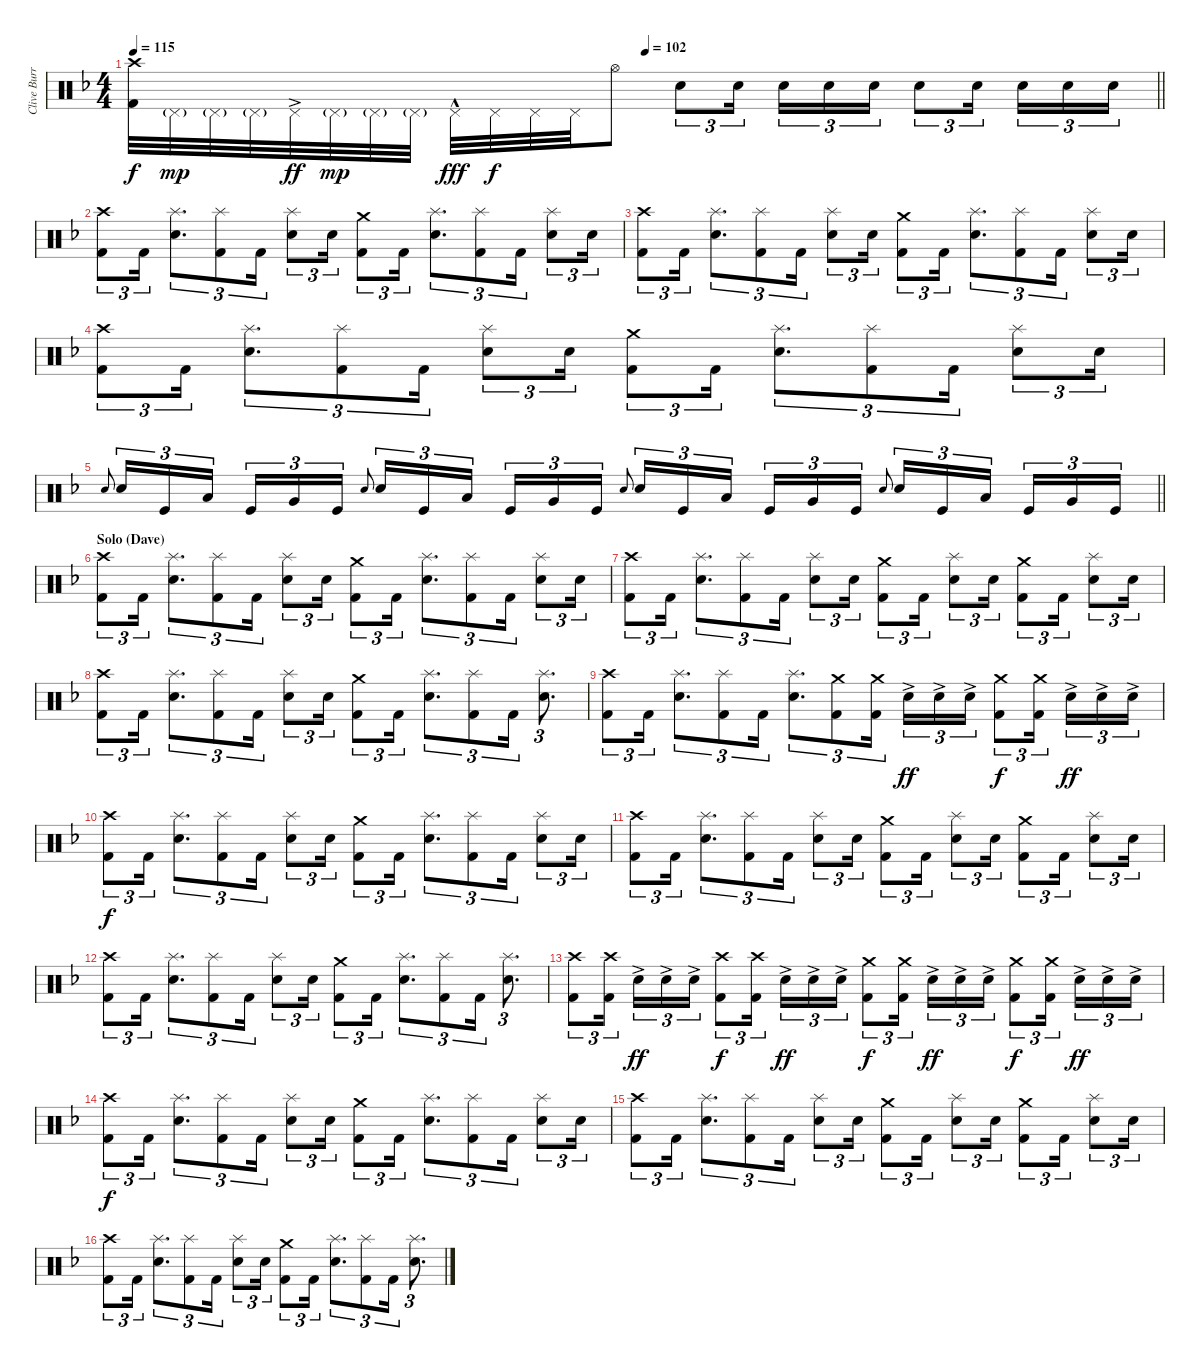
\track ("Clive Burr" "Clive Burr") {instrument percussion}
\staff {score}
\articulation defaults
\ts (4 4)
\tempo 115
\tempo (102 0.5)
\clef neutral
\barLineRight lightlight
\ks dminor
("Crash high (hit)" "Kick (hit) 2").32{dy f} "Pedal Hi-Hat (hit)"{g}.32{dy mp} "Pedal Hi-Hat (hit)"{g}.32 "Pedal Hi-Hat (hit)"{g}.32 "Pedal Hi-Hat (hit)"{ac}.32{dy ff} "Pedal Hi-Hat (hit)"{g}.32{dy mp} "Pedal Hi-Hat (hit)"{g}.32 "Pedal Hi-Hat (hit)"{g}.32 "Pedal Hi-Hat (hit)"{hac}.32{dy fff} "Pedal Hi-Hat (hit)".32{dy f} "Pedal Hi-Hat (hit)".32 "Pedal Hi-Hat (hit)".32 "Hi-Hat (open)".8 "Electric Snare (hit)".8{tu (3 2)} "Electric Snare (hit)".16{tu (3 2) beam splitsecondary} "Electric Snare (hit)".16{tu (3 2)} "Electric Snare (hit)".16{tu (3 2)} "Electric Snare (hit)".16{tu (3 2)} "Electric Snare (hit)".8{tu (3 2)} "Electric Snare (hit)".16{tu (3 2) beam splitsecondary} "Electric Snare (hit)".16{tu (3 2)} "Electric Snare (hit)".16{tu (3 2)} "Electric Snare (hit)".16{tu (3 2)} |
("Crash high (hit)" "Kick (hit) 2").8{tu (3 2)} "Kick (hit) 2".16{tu (3 2)} ("Splash (hit)" "Snare (hit) 2").8{d tu (3 2)} ("Splash (hit)" "Kick (hit) 2").8{tu (3 2)} "Kick (hit) 2".16{tu (3 2)} ("Splash (hit)" "Snare (hit) 2").8{tu (3 2)} "Snare (hit) 2".16{tu (3 2)} ("Crash medium (hit)" "Kick (hit) 2").8{tu (3 2)} "Kick (hit) 2".16{tu (3 2)} ("Splash (hit)" "Snare (hit) 2").8{d tu (3 2)} ("Splash (hit)" "Kick (hit) 2").8{tu (3 2)} "Kick (hit) 2".16{tu (3 2)} ("Splash (hit)" "Snare (hit) 2").8{tu (3 2)} "Snare (hit) 2".16{tu (3 2)} |
("Crash high (hit)" "Kick (hit) 2").8{tu (3 2)} "Kick (hit) 2".16{tu (3 2)} ("Splash (hit)" "Snare (hit) 2").8{d tu (3 2)} ("Splash (hit)" "Kick (hit) 2").8{tu (3 2)} "Kick (hit) 2".16{tu (3 2)} ("Splash (hit)" "Snare (hit) 2").8{tu (3 2)} "Snare (hit) 2".16{tu (3 2)} ("Crash medium (hit)" "Kick (hit) 2").8{tu (3 2)} "Kick (hit) 2".16{tu (3 2)} ("Splash (hit)" "Snare (hit) 2").8{d tu (3 2)} ("Splash (hit)" "Kick (hit) 2").8{tu (3 2)} "Kick (hit) 2".16{tu (3 2)} ("Splash (hit)" "Snare (hit) 2").8{tu (3 2)} "Snare (hit) 2".16{tu (3 2)} |
("Crash high (hit)" "Kick (hit) 2").8{tu (3 2)} "Kick (hit) 2".16{tu (3 2)} ("Splash (hit)" "Snare (hit) 2").8{d tu (3 2)} ("Splash (hit)" "Kick (hit) 2").8{tu (3 2)} "Kick (hit) 2".16{tu (3 2)} ("Splash (hit)" "Snare (hit) 2").8{tu (3 2)} "Snare (hit) 2".16{tu (3 2)} ("Crash medium (hit)" "Kick (hit) 2").8{tu (3 2)} "Kick (hit) 2".16{tu (3 2)} ("Splash (hit)" "Snare (hit) 2").8{d tu (3 2)} ("Splash (hit)" "Kick (hit) 2").8{tu (3 2)} "Kick (hit) 2".16{tu (3 2)} ("Splash (hit)" "Snare (hit) 2").8{tu (3 2)} "Snare (hit) 2".16{tu (3 2)} |
\barLineRight lightlight "Electric Snare (hit)".8{gr onbeat} "Electric Snare (hit)".16{tu (3 2)} "Kick (hit)".16{tu (3 2)} "Low Tom (hit)".16{tu (3 2) beam splitsecondary} "Kick (hit)".16{tu (3 2)} "Very Low Tom (hit)".16{tu (3 2)} "Kick (hit)".16{tu (3 2)} "Electric Snare (hit)".8{gr onbeat} "Electric Snare (hit)".16{tu (3 2)} "Kick (hit)".16{tu (3 2)} "Low Tom (hit)".16{tu (3 2) beam splitsecondary} "Kick (hit)".16{tu (3 2)} "Very Low Tom (hit)".16{tu (3 2)} "Kick (hit)".16{tu (3 2)} "Electric Snare (hit)".8{gr onbeat} "Electric Snare (hit)".16{tu (3 2)} "Kick (hit)".16{tu (3 2)} "Low Tom (hit)".16{tu (3 2) beam splitsecondary} "Kick (hit)".16{tu (3 2)} "Very Low Tom (hit)".16{tu (3 2)} "Kick (hit)".16{tu (3 2)} "Electric Snare (hit)".8{gr onbeat} "Electric Snare (hit)".16{tu (3 2)} "Kick (hit)".16{tu (3 2)} "Low Tom (hit)".16{tu (3 2) beam splitsecondary} "Kick (hit)".16{tu (3 2)} "Very Low Tom (hit)".16{tu (3 2)} "Kick (hit)".16{tu (3 2)}
|
\section ("" "Solo (Dave)")
("Crash high (hit)" "Kick (hit) 2").8{tu (3 2)} "Kick (hit) 2".16{tu (3 2)} ("Splash (hit)" "Snare (hit) 2").8{d tu (3 2)} ("Splash (hit)" "Kick (hit) 2").8{tu (3 2)} "Kick (hit) 2".16{tu (3 2)} ("Splash (hit)" "Snare (hit) 2").8{tu (3 2)} "Snare (hit) 2".16{tu (3 2)} ("Crash medium (hit)" "Kick (hit) 2").8{tu (3 2)} "Kick (hit) 2".16{tu (3 2)} ("Splash (hit)" "Snare (hit) 2").8{d tu (3 2)} ("Splash (hit)" "Kick (hit) 2").8{tu (3 2)} "Kick (hit) 2".16{tu (3 2)} ("Splash (hit)" "Snare (hit) 2").8{tu (3 2)} "Snare (hit) 2".16{tu (3 2)} |
("Crash high (hit)" "Kick (hit) 2").8{tu (3 2)} "Kick (hit) 2".16{tu (3 2)} ("Splash (hit)" "Snare (hit) 2").8{d tu (3 2)} ("Splash (hit)" "Kick (hit) 2").8{tu (3 2)} "Kick (hit) 2".16{tu (3 2)} ("Splash (hit)" "Snare (hit) 2").8{tu (3 2)} "Snare (hit) 2".16{tu (3 2)} ("Crash medium (hit)" "Kick (hit) 2").8{tu (3 2)} "Kick (hit) 2".16{tu (3 2)} ("Splash (hit)" "Snare (hit) 2").8{tu (3 2)} "Snare (hit) 2".16{tu (3 2)} ("Crash medium (hit)" "Kick (hit) 2").8{tu (3 2)} "Kick (hit) 2".16{tu (3 2)} ("Splash (hit)" "Snare (hit) 2").8{tu (3 2)} "Snare (hit) 2".16{tu (3 2)} |
("Crash high (hit)" "Kick (hit) 2").8{tu (3 2)} "Kick (hit) 2".16{tu (3 2)} ("Splash (hit)" "Snare (hit) 2").8{d tu (3 2)} ("Splash (hit)" "Kick (hit) 2").8{tu (3 2)} "Kick (hit) 2".16{tu (3 2)} ("Splash (hit)" "Snare (hit) 2").8{tu (3 2)} "Snare (hit) 2".16{tu (3 2)} ("Crash medium (hit)" "Kick (hit) 2").8{tu (3 2)} "Kick (hit) 2".16{tu (3 2)} ("Splash (hit)" "Snare (hit) 2").8{d tu (3 2)} ("Splash (hit)" "Kick (hit) 2").8{tu (3 2)} "Kick (hit) 2".16{tu (3 2)} ("Splash (hit)" "Snare (hit) 2").8{d tu (3 2)} |
("Crash high (hit)" "Kick (hit) 2").8{tu (3 2)} "Kick (hit) 2".16{tu (3 2)} ("Splash (hit)" "Snare (hit) 2").8{d tu (3 2)} ("Splash (hit)" "Kick (hit) 2").8{tu (3 2)} "Kick (hit) 2".16{tu (3 2)} ("Splash (hit)" "Snare (hit) 2").8{d tu (3 2)} ("Crash medium (hit)" "Kick (hit) 2").8{tu (3 2)} ("Crash medium (hit)" "Kick (hit) 2").16{tu (3 2) beam splitsecondary} "Electric Snare (hit)"{ac}.16{tu (3 2) dy ff} "Electric Snare (hit)"{ac}.16{tu (3 2)} "Electric Snare (hit)"{ac}.16{tu (3 2)} ("Crash medium (hit)" "Kick (hit) 2").8{tu (3 2) dy f} ("Crash medium (hit)" "Kick (hit) 2").16{tu (3 2) beam splitsecondary} "Electric Snare (hit)"{ac}.16{tu (3 2) dy ff} "Electric Snare (hit)"{ac}.16{tu (3 2)} "Electric Snare (hit)"{ac}.16{tu (3 2)} |
("Crash high (hit)" "Kick (hit) 2").8{tu (3 2) dy f} "Kick (hit) 2".16{tu (3 2)} ("Splash (hit)" "Snare (hit) 2").8{d tu (3 2)} ("Splash (hit)" "Kick (hit) 2").8{tu (3 2)} "Kick (hit) 2".16{tu (3 2)} ("Splash (hit)" "Snare (hit) 2").8{tu (3 2)} "Snare (hit) 2".16{tu (3 2)} ("Crash medium (hit)" "Kick (hit) 2").8{tu (3 2)} "Kick (hit) 2".16{tu (3 2)} ("Splash (hit)" "Snare (hit) 2").8{d tu (3 2)} ("Splash (hit)" "Kick (hit) 2").8{tu (3 2)} "Kick (hit) 2".16{tu (3 2)} ("Splash (hit)" "Snare (hit) 2").8{tu (3 2)} "Snare (hit) 2".16{tu (3 2)} |
("Crash high (hit)" "Kick (hit) 2").8{tu (3 2)} "Kick (hit) 2".16{tu (3 2)} ("Splash (hit)" "Snare (hit) 2").8{d tu (3 2)} ("Splash (hit)" "Kick (hit) 2").8{tu (3 2)} "Kick (hit) 2".16{tu (3 2)} ("Splash (hit)" "Snare (hit) 2").8{tu (3 2)} "Snare (hit) 2".16{tu (3 2)} ("Crash medium (hit)" "Kick (hit) 2").8{tu (3 2)} "Kick (hit) 2".16{tu (3 2)} ("Splash (hit)" "Snare (hit) 2").8{tu (3 2)} "Snare (hit) 2".16{tu (3 2)} ("Crash medium (hit)" "Kick (hit) 2").8{tu (3 2)} "Kick (hit) 2".16{tu (3 2)} ("Splash (hit)" "Snare (hit) 2").8{tu (3 2)} "Snare (hit) 2".16{tu (3 2)} |
("Crash high (hit)" "Kick (hit) 2").8{tu (3 2)} "Kick (hit) 2".16{tu (3 2)} ("Splash (hit)" "Snare (hit) 2").8{d tu (3 2)} ("Splash (hit)" "Kick (hit) 2").8{tu (3 2)} "Kick (hit) 2".16{tu (3 2)} ("Splash (hit)" "Snare (hit) 2").8{tu (3 2)} "Snare (hit) 2".16{tu (3 2)} ("Crash medium (hit)" "Kick (hit) 2").8{tu (3 2)} "Kick (hit) 2".16{tu (3 2)} ("Splash (hit)" "Snare (hit) 2").8{d tu (3 2)} ("Splash (hit)" "Kick (hit) 2").8{tu (3 2)} "Kick (hit) 2".16{tu (3 2)} ("Splash (hit)" "Snare (hit) 2").8{d tu (3 2)} |
("Crash high (hit)" "Kick (hit) 2").8{tu (3 2)} ("Crash high (hit)" "Kick (hit) 2").16{tu (3 2) beam splitsecondary} "Electric Snare (hit)"{ac}.16{tu (3 2) dy ff} "Electric Snare (hit)"{ac}.16{tu (3 2)} "Electric Snare (hit)"{ac}.16{tu (3 2)} ("Crash high (hit)" "Kick (hit) 2").8{tu (3 2) dy f} ("Crash high (hit)" "Kick (hit) 2").16{tu (3 2) beam splitsecondary} "Electric Snare (hit)"{ac}.16{tu (3 2) dy ff} "Electric Snare (hit)"{ac}.16{tu (3 2)} "Electric Snare (hit)"{ac}.16{tu (3 2)} ("Crash medium (hit)" "Kick (hit) 2").8{tu (3 2) dy f} ("Crash medium (hit)" "Kick (hit) 2").16{tu (3 2) beam splitsecondary} "Electric Snare (hit)"{ac}.16{tu (3 2) dy ff} "Electric Snare (hit)"{ac}.16{tu (3 2)} "Electric Snare (hit)"{ac}.16{tu (3 2)} ("Crash medium (hit)" "Kick (hit) 2").8{tu (3 2) dy f} ("Crash medium (hit)" "Kick (hit) 2").16{tu (3 2) beam splitsecondary} "Electric Snare (hit)"{ac}.16{tu (3 2) dy ff} "Electric Snare (hit)"{ac}.16{tu (3 2)} "Electric Snare (hit)"{ac}.16{tu (3 2)} |
("Crash high (hit)" "Kick (hit) 2").8{tu (3 2) dy f} "Kick (hit) 2".16{tu (3 2)} ("Splash (hit)" "Snare (hit) 2").8{d tu (3 2)} ("Splash (hit)" "Kick (hit) 2").8{tu (3 2)} "Kick (hit) 2".16{tu (3 2)} ("Splash (hit)" "Snare (hit) 2").8{tu (3 2)} "Snare (hit) 2".16{tu (3 2)} ("Crash medium (hit)" "Kick (hit) 2").8{tu (3 2)} "Kick (hit) 2".16{tu (3 2)} ("Splash (hit)" "Snare (hit) 2").8{d tu (3 2)} ("Splash (hit)" "Kick (hit) 2").8{tu (3 2)} "Kick (hit) 2".16{tu (3 2)} ("Splash (hit)" "Snare (hit) 2").8{tu (3 2)} "Snare (hit) 2".16{tu (3 2)} |
("Crash high (hit)" "Kick (hit) 2").8{tu (3 2)} "Kick (hit) 2".16{tu (3 2)} ("Splash (hit)" "Snare (hit) 2").8{d tu (3 2)} ("Splash (hit)" "Kick (hit) 2").8{tu (3 2)} "Kick (hit) 2".16{tu (3 2)} ("Splash (hit)" "Snare (hit) 2").8{tu (3 2)} "Snare (hit) 2".16{tu (3 2)} ("Crash medium (hit)" "Kick (hit) 2").8{tu (3 2)} "Kick (hit) 2".16{tu (3 2)} ("Splash (hit)" "Snare (hit) 2").8{tu (3 2)} "Snare (hit) 2".16{tu (3 2)} ("Crash medium (hit)" "Kick (hit) 2").8{tu (3 2)} "Kick (hit) 2".16{tu (3 2)} ("Splash (hit)" "Snare (hit) 2").8{tu (3 2)} "Snare (hit) 2".16{tu (3 2)} |
("Crash high (hit)" "Kick (hit) 2").8{tu (3 2)} "Kick (hit) 2".16{tu (3 2)} ("Splash (hit)" "Snare (hit) 2").8{d tu (3 2)} ("Splash (hit)" "Kick (hit) 2").8{tu (3 2)} "Kick (hit) 2".16{tu (3 2)} ("Splash (hit)" "Snare (hit) 2").8{tu (3 2)} "Snare (hit) 2".16{tu (3 2)} ("Crash medium (hit)" "Kick (hit) 2").8{tu (3 2)} "Kick (hit) 2".16{tu (3 2)} ("Splash (hit)" "Snare (hit) 2").8{d tu (3 2)} ("Splash (hit)" "Kick (hit) 2").8{tu (3 2)} "Kick (hit) 2".16{tu (3 2)} ("Splash (hit)" "Snare (hit) 2").8{d tu (3 2)}
